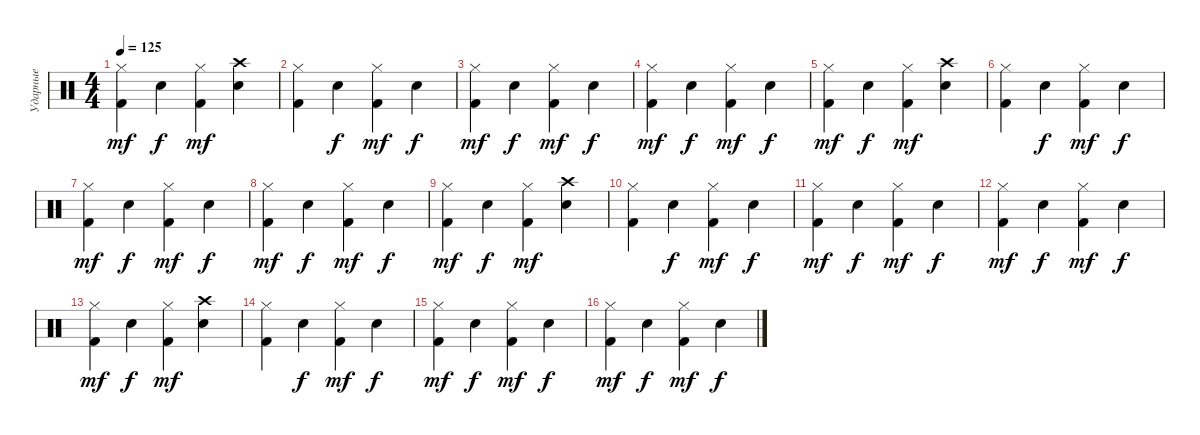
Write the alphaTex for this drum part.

\track ("Ударные" "Ударные") {instrument percussion}
\staff {score}
\articulation defaults
\ts (4 4)
\tempo 125
\clef neutral
\ks c
("Hi-Hat (closed)" "Kick (hit) 2").4{dy mf} "Electric Snare (hit)".4{dy f} ("Hi-Hat (closed)" "Kick (hit) 2").4{dy mf} ("Crash high (hit)" "Electric Snare (hit)").4 |
("Hi-Hat (closed)" "Kick (hit) 2").4 "Electric Snare (hit)".4{dy f} ("Hi-Hat (closed)" "Kick (hit) 2").4{dy mf} "Electric Snare (hit)".4{dy f} |
("Hi-Hat (closed)" "Kick (hit) 2").4{dy mf} "Electric Snare (hit)".4{dy f} ("Hi-Hat (closed)" "Kick (hit) 2").4{dy mf} "Electric Snare (hit)".4{dy f} |
("Hi-Hat (closed)" "Kick (hit) 2").4{dy mf} "Electric Snare (hit)".4{dy f} ("Hi-Hat (closed)" "Kick (hit) 2").4{dy mf} "Electric Snare (hit)".4{dy f} |
("Hi-Hat (closed)" "Kick (hit) 2").4{dy mf} "Electric Snare (hit)".4{dy f} ("Hi-Hat (closed)" "Kick (hit) 2").4{dy mf} ("Crash high (hit)" "Electric Snare (hit)").4 |
("Hi-Hat (closed)" "Kick (hit) 2").4 "Electric Snare (hit)".4{dy f} ("Hi-Hat (closed)" "Kick (hit) 2").4{dy mf} "Electric Snare (hit)".4{dy f} |
("Hi-Hat (closed)" "Kick (hit) 2").4{dy mf} "Electric Snare (hit)".4{dy f} ("Hi-Hat (closed)" "Kick (hit) 2").4{dy mf} "Electric Snare (hit)".4{dy f} |
("Hi-Hat (closed)" "Kick (hit) 2").4{dy mf} "Electric Snare (hit)".4{dy f} ("Hi-Hat (closed)" "Kick (hit) 2").4{dy mf} "Electric Snare (hit)".4{dy f} |
("Hi-Hat (closed)" "Kick (hit) 2").4{dy mf} "Electric Snare (hit)".4{dy f} ("Hi-Hat (closed)" "Kick (hit) 2").4{dy mf} ("Crash high (hit)" "Electric Snare (hit)").4 |
("Hi-Hat (closed)" "Kick (hit) 2").4 "Electric Snare (hit)".4{dy f} ("Hi-Hat (closed)" "Kick (hit) 2").4{dy mf} "Electric Snare (hit)".4{dy f} |
("Hi-Hat (closed)" "Kick (hit) 2").4{dy mf} "Electric Snare (hit)".4{dy f} ("Hi-Hat (closed)" "Kick (hit) 2").4{dy mf} "Electric Snare (hit)".4{dy f} |
("Hi-Hat (closed)" "Kick (hit) 2").4{dy mf} "Electric Snare (hit)".4{dy f} ("Hi-Hat (closed)" "Kick (hit) 2").4{dy mf} "Electric Snare (hit)".4{dy f} |
("Hi-Hat (closed)" "Kick (hit) 2").4{dy mf} "Electric Snare (hit)".4{dy f} ("Hi-Hat (closed)" "Kick (hit) 2").4{dy mf} ("Crash high (hit)" "Electric Snare (hit)").4 |
("Hi-Hat (closed)" "Kick (hit) 2").4 "Electric Snare (hit)".4{dy f} ("Hi-Hat (closed)" "Kick (hit) 2").4{dy mf} "Electric Snare (hit)".4{dy f} |
("Hi-Hat (closed)" "Kick (hit) 2").4{dy mf} "Electric Snare (hit)".4{dy f} ("Hi-Hat (closed)" "Kick (hit) 2").4{dy mf} "Electric Snare (hit)".4{dy f} |
("Hi-Hat (closed)" "Kick (hit) 2").4{dy mf} "Electric Snare (hit)".4{dy f} ("Hi-Hat (closed)" "Kick (hit) 2").4{dy mf} "Electric Snare (hit)".4{dy f}
